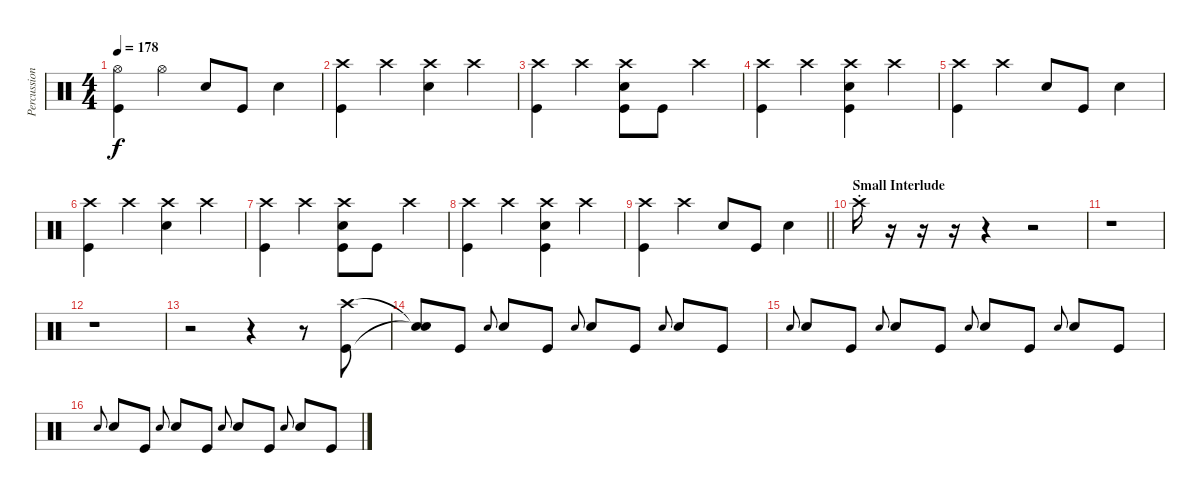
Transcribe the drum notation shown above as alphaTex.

\track ("Percussion" "Percussion") {instrument percussion}
\staff {score}
\articulation defaults
\ts (4 4)
\tempo 178
\clef neutral
\ks c
("Hi-Hat (open)" "Kick (hit)").4{dy f} "Hi-Hat (open)".4 "Snare (hit) 2".8 "Kick (hit)".8 "Snare (hit) 2".4 |
("Crash high (hit)" "Kick (hit)").4 "Crash high (hit)".4 ("Crash high (hit)" "Snare (hit) 2").4 "Crash high (hit)".4 |
("Crash high (hit)" "Kick (hit)").4 "Crash high (hit)".4 ("Crash high (hit)" "Snare (hit) 2" "Kick (hit)").8 "Kick (hit)".8 "Crash high (hit)".4 |
("Crash high (hit)" "Kick (hit)").4 "Crash high (hit)".4 ("Crash high (hit)" "Snare (hit) 2" "Kick (hit)").4 "Crash high (hit)".4 |
("Crash high (hit)" "Kick (hit)").4 "Crash high (hit)".4 "Snare (hit) 2".8 "Kick (hit)".8 "Snare (hit) 2".4 |
("Crash high (hit)" "Kick (hit)").4 "Crash high (hit)".4 ("Crash high (hit)" "Snare (hit) 2").4 "Crash high (hit)".4 |
("Crash high (hit)" "Kick (hit)").4 "Crash high (hit)".4 ("Crash high (hit)" "Snare (hit) 2" "Kick (hit)").8 "Kick (hit)".8 "Crash high (hit)".4 |
("Crash high (hit)" "Kick (hit)").4 "Crash high (hit)".4 ("Crash high (hit)" "Snare (hit) 2" "Kick (hit)").4 "Crash high (hit)".4 |
\barLineRight lightlight
("Crash high (hit)" "Kick (hit)").4 "Crash high (hit)".4 "Snare (hit) 2".8 "Kick (hit)".8 "Snare (hit) 2".4 |
\section ("" "Small Interlude")
"Crash high (hit)"{st}.16 r.16 r.16 r.16 r.4 r.2 |
r.1 |
r.1 |
r.2 r.4 r.8 ("Crash high (hit)" "Kick (hit)").8 |
("Snare (hit)"{t} "Snare (hit)"{t}).8 "Kick (hit)".8 "Snare (hit) 2".8{gr onbeat} "Snare (hit) 2".8 "Kick (hit)".8 "Snare (hit) 2".8{gr onbeat} "Snare (hit) 2".8 "Kick (hit)".8 "Snare (hit) 2".8{gr onbeat} "Snare (hit) 2".8 "Kick (hit)".8 |
"Snare (hit) 2".8{gr onbeat} "Snare (hit) 2".8 "Kick (hit)".8 "Snare (hit) 2".8{gr onbeat} "Snare (hit) 2".8 "Kick (hit)".8 "Snare (hit) 2".8{gr onbeat} "Snare (hit) 2".8 "Kick (hit)".8 "Snare (hit) 2".8{gr onbeat} "Snare (hit) 2".8 "Kick (hit)".8 |
"Snare (hit) 2".8{gr onbeat} "Snare (hit) 2".8 "Kick (hit)".8 "Snare (hit) 2".8{gr onbeat} "Snare (hit) 2".8 "Kick (hit)".8 "Snare (hit) 2".8{gr onbeat} "Snare (hit) 2".8 "Kick (hit)".8 "Snare (hit) 2".8{gr onbeat} "Snare (hit) 2".8 "Kick (hit)".8
